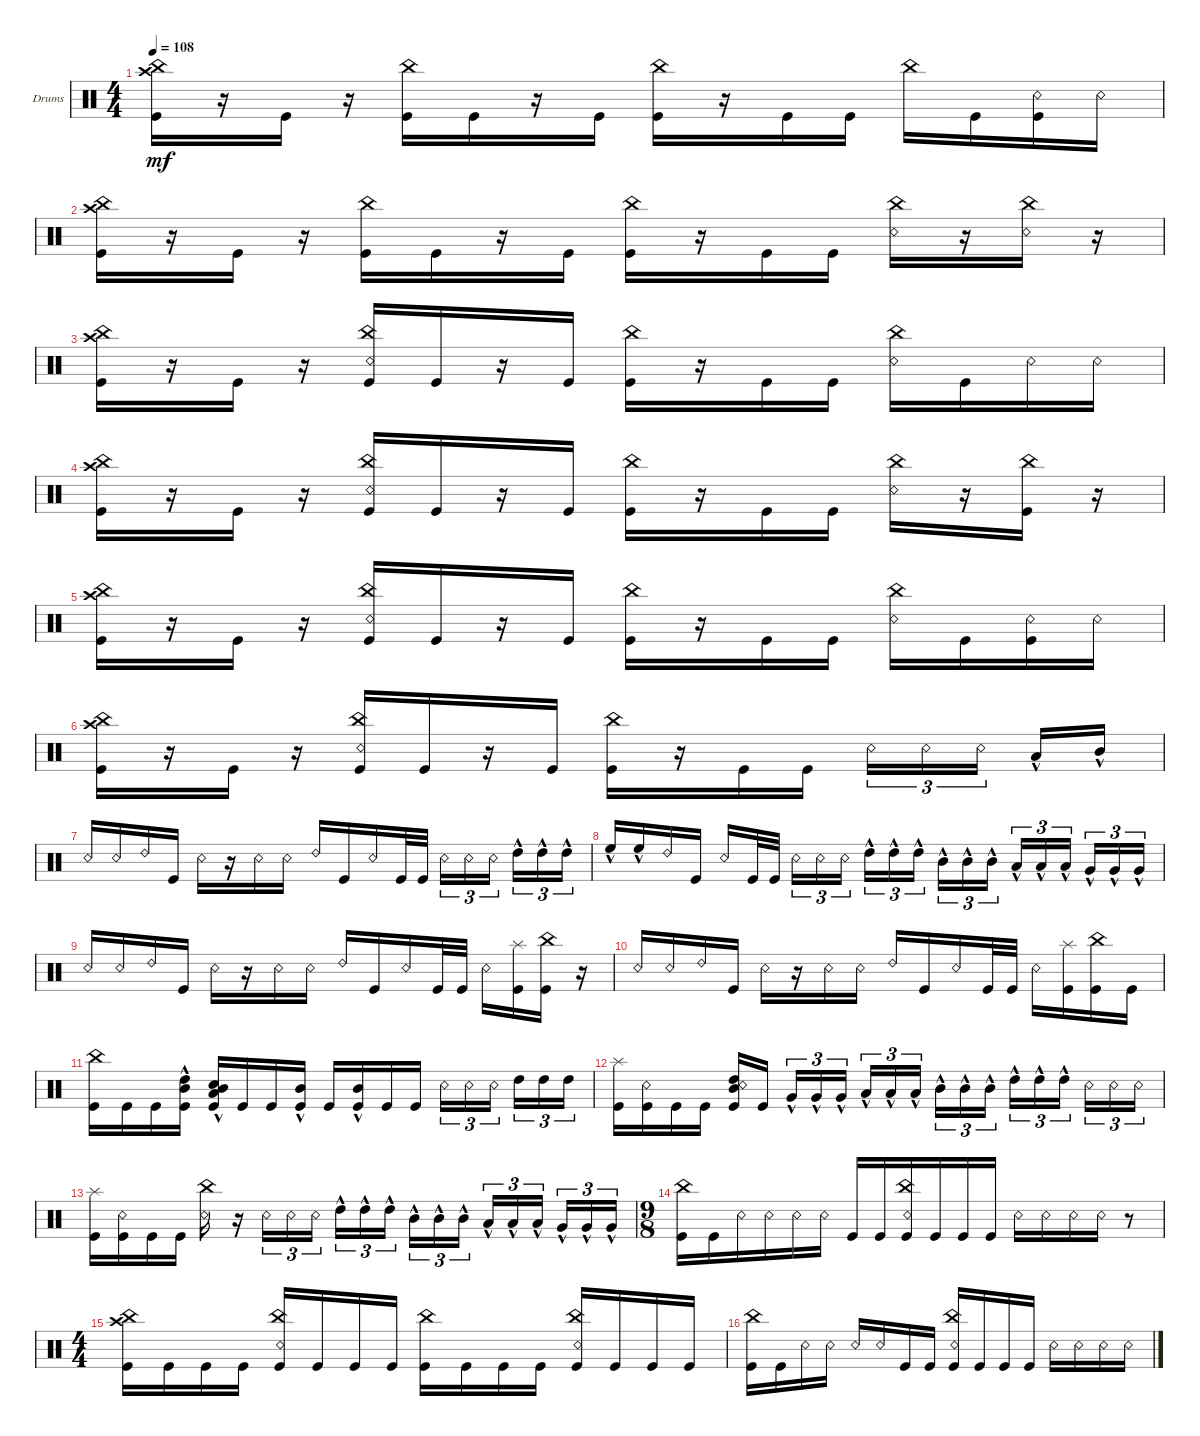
\defaultSystemsLayout 4
\bracketExtendMode groupsimilarinstruments
\firstSystemTrackNameOrientation horizontal
\otherSystemsTrackNameOrientation horizontal
\track ("Drumkit" "Drums") {instrument percussion}
\staff {score}
\articulation defaults
\ts (4 4)
\tempo 108
\clef neutral
\ks c
("Kick (hit)" "China (hit)" "Crash high (hit)").16{dy mf} r.16 "Kick (hit)".16 r.16 ("Kick (hit)" "China (hit)").16 "Kick (hit)".16 r.16 "Kick (hit)".16 ("Kick (hit)" "China (hit)").16 r.16 "Kick (hit)".16 "Kick (hit)".16 "China (hit)".16 "Kick (hit)".16 ("Snare (rim shot)" "Kick (hit)").16 "Snare (rim shot)".16 |
("Kick (hit)" "China (hit)" "Crash high (hit)").16 r.16 "Kick (hit)".16 r.16 ("Kick (hit)" "China (hit)").16 "Kick (hit)".16 r.16 "Kick (hit)".16 ("Kick (hit)" "China (hit)").16 r.16 "Kick (hit)".16 "Kick (hit)".16 ("China (hit)" "Snare (rim shot)").16 r.16 ("Snare (rim shot)" "China (hit)").16 r.16 |
("Kick (hit)" "China (hit)" "Crash high (hit)").16 r.16 "Kick (hit)".16 r.16 ("Kick (hit)" "China (hit)" "Snare (rim shot)").16 "Kick (hit)".16 r.16 "Kick (hit)".16 ("Kick (hit)" "China (hit)").16 r.16 "Kick (hit)".16 "Kick (hit)".16 ("China (hit)" "Snare (rim shot)").16 "Kick (hit)".16 "Snare (rim shot)".16 "Snare (rim shot)".16 |
("Kick (hit)" "China (hit)" "Crash high (hit)").16 r.16 "Kick (hit)".16 r.16 ("Kick (hit)" "China (hit)" "Snare (rim shot)").16 "Kick (hit)".16 r.16 "Kick (hit)".16 ("Kick (hit)" "China (hit)").16 r.16 "Kick (hit)".16 "Kick (hit)".16 ("China (hit)" "Snare (rim shot)").16 r.16 ("China (hit)" "Kick (hit)").16 r.16 |
("Kick (hit)" "China (hit)" "Crash high (hit)").16 r.16 "Kick (hit)".16 r.16 ("Kick (hit)" "China (hit)" "Snare (rim shot)").16 "Kick (hit)".16 r.16 "Kick (hit)".16 ("Kick (hit)" "China (hit)").16 r.16 "Kick (hit)".16 "Kick (hit)".16 ("China (hit)" "Snare (rim shot)").16 "Kick (hit)".16 ("Snare (rim shot)" "Kick (hit)").16 "Snare (rim shot)".16 |
("Kick (hit)" "China (hit)" "Crash high (hit)").16 r.16 "Kick (hit)".16 r.16 ("Kick (hit)" "China (hit)" "Snare (rim shot)").16 "Kick (hit)".16 r.16 "Kick (hit)".16 ("Kick (hit)" "China (hit)").16 r.16 "Kick (hit)".16 "Kick (hit)".16 "Snare (rim shot)".16{tu (3 2)} "Snare (rim shot)".16{tu (3 2)} "Snare (rim shot)".16{tu (3 2)} "Low Tom (hit)"{hac}.16 "Mid Tom (hit)"{hac}.16 |
"Snare (rim shot)".16 "Snare (rim shot)".16 "Ride (bell) 2".16 "Kick (hit)".16 "Snare (rim shot)".16 r.16 "Snare (rim shot)".16 "Snare (rim shot)".16 "Ride (bell) 2".16 "Kick (hit)".16 "Snare (rim shot)".16 "Kick (hit)".32 "Kick (hit)".32 "Snare (rim shot)".16{tu (3 2)} "Snare (rim shot)".16{tu (3 2)} "Snare (rim shot)".16{tu (3 2)} "High Tom (hit)"{hac}.16{tu (3 2)} "High Tom (hit)"{hac}.16{tu (3 2)} "High Tom (hit)"{hac}.16{tu (3 2)} |
"High Floor Tom (hit)"{hac}.16 "High Floor Tom (hit)"{hac}.16 "Ride (bell) 2".16 "Kick (hit)".16 "Snare (rim shot)".16 "Kick (hit)".32 "Kick (hit)".32 "Snare (rim shot)".16{tu (3 2)} "Snare (rim shot)".16{tu (3 2)} "Snare (rim shot)".16{tu (3 2)} "High Tom (hit)"{hac}.16{tu (3 2)} "High Tom (hit)"{hac}.16{tu (3 2)} "High Tom (hit)"{hac}.16{tu (3 2)} "Mid Tom (hit)"{hac}.16{tu (3 2)} "Mid Tom (hit)"{hac}.16{tu (3 2)} "Mid Tom (hit)"{hac}.16{tu (3 2)} "Low Tom (hit)"{hac}.16{tu (3 2)} "Low Tom (hit)"{hac}.16{tu (3 2)} "Low Tom (hit)"{hac}.16{tu (3 2)} "Very Low Tom (hit)"{hac}.16{tu (3 2)} "Very Low Tom (hit)"{hac}.16{tu (3 2)} "Very Low Tom (hit)"{hac}.16{tu (3 2)} |
"Snare (rim shot)".16 "Snare (rim shot)".16 "Ride (bell) 2".16 "Kick (hit)".16 "Snare (rim shot)".16 r.16 "Snare (rim shot)".16 "Snare (rim shot)".16 "Ride (bell) 2".16 "Kick (hit)".16 "Snare (rim shot)".16 "Kick (hit)".32 "Kick (hit)".32 "Snare (rim shot)".16 ("Splash (hit)" "Kick (hit)").16 ("China (hit)" "Kick (hit)").16 r.16 |
"Snare (rim shot)".16 "Snare (rim shot)".16 "Ride (bell) 2".16 "Kick (hit)".16 "Snare (rim shot)".16 r.16 "Snare (rim shot)".16 "Snare (rim shot)".16 "Ride (bell) 2".16 "Kick (hit)".16 "Snare (rim shot)".16 "Kick (hit)".32 "Kick (hit)".32 "Snare (rim shot)".16 ("Splash (hit)" "Kick (hit)").16 ("China (hit)" "Kick (hit)").16 "Kick (hit)".16 |
("Kick (hit)" "China (hit)").16 "Kick (hit)".16 "Kick (hit)".16 ("Kick (hit)" "High Tom (hit)"{hac} "Mid Tom (hit)"{hac}).16 ("Kick (hit)" "Mid Tom (hit)"{hac} "Snare (hit) 2"{hac} "Low Tom (hit)"{hac}).16 "Kick (hit)".16 "Kick (hit)".16 ("Kick (hit)" "Mid Tom (hit)"{hac}).16 "Kick (hit)".16 ("Kick (hit)" "Mid Tom (hit)"{hac}).16 "Kick (hit)".16 "Kick (hit)".16 "Snare (rim shot)".16{tu (3 2)} "Snare (rim shot)".16{tu (3 2)} "Snare (rim shot)".16{tu (3 2)} "High Tom (hit)".16{tu (3 2)} "High Tom (hit)".16{tu (3 2)} "High Tom (hit)".16{tu (3 2)} |
("Kick (hit)" "Splash (hit)").16 ("Kick (hit)" "Snare (rim shot)").16 "Kick (hit)".16 "Kick (hit)".16 ("Kick (hit)" "High Tom (hit)" "Mid Tom (hit)" "Snare (rim shot)").16 "Kick (hit)".16 "Very Low Tom (hit)"{hac}.16{tu (3 2)} "Very Low Tom (hit)"{hac}.16{tu (3 2)} "Very Low Tom (hit)"{hac}.16{tu (3 2)} "Low Tom (hit)"{hac}.16{tu (3 2)} "Low Tom (hit)"{hac}.16{tu (3 2)} "Low Tom (hit)"{hac}.16{tu (3 2)} "Mid Tom (hit)"{hac}.16{tu (3 2)} "Mid Tom (hit)"{hac}.16{tu (3 2)} "Mid Tom (hit)"{hac}.16{tu (3 2)} "High Tom (hit)"{hac}.16{tu (3 2)} "High Tom (hit)"{hac}.16{tu (3 2)} "High Tom (hit)"{hac}.16{tu (3 2)} "Snare (rim shot)".16{tu (3 2)} "Snare (rim shot)".16{tu (3 2)} "Snare (rim shot)".16{tu (3 2)} |
("Splash (hit)" "Kick (hit)").16 ("Kick (hit)" "Snare (rim shot)").16 "Kick (hit)".16 "Kick (hit)".16 ("Snare (rim shot)" "China (hit)").16 r.16 "Snare (rim shot)".16{tu (3 2)} "Snare (rim shot)".16{tu (3 2)} "Snare (rim shot)".16{tu (3 2)} "High Tom (hit)"{hac}.16{tu (3 2)} "High Tom (hit)"{hac}.16{tu (3 2)} "High Tom (hit)"{hac}.16{tu (3 2)} "Mid Tom (hit)"{hac}.16{tu (3 2)} "Mid Tom (hit)"{hac}.16{tu (3 2)} "Mid Tom (hit)"{hac}.16{tu (3 2)} "Low Tom (hit)"{hac}.16{tu (3 2)} "Low Tom (hit)"{hac}.16{tu (3 2)} "Low Tom (hit)"{hac}.16{tu (3 2)} "Very Low Tom (hit)"{hac}.16{tu (3 2)} "Very Low Tom (hit)"{hac}.16{tu (3 2)} "Very Low Tom (hit)"{hac}.16{tu (3 2)} |
\ts (9 8)
("Kick (hit)" "China (hit)").16 "Kick (hit)".16 "Snare (rim shot)".16 "Snare (rim shot)".16 "Snare (rim shot)".16 "Snare (rim shot)".16 "Kick (hit)".16 "Kick (hit)".16 ("Kick (hit)" "Snare (rim shot)" "China (hit)").16 "Kick (hit)".16 "Kick (hit)".16 "Kick (hit)".16 "Snare (rim shot)".16 "Snare (rim shot)".16 "Snare (rim shot)".16 "Snare (rim shot)".16 r.8 |
\ts (4 4)
("Kick (hit)" "China (hit)" "Crash high (hit)").16 "Kick (hit)".16 "Kick (hit)".16 "Kick (hit)".16 ("Kick (hit)" "China (hit)" "Snare (rim shot)").16 "Kick (hit)".16 "Kick (hit)".16 "Kick (hit)".16 ("Kick (hit)" "China (hit)").16 "Kick (hit)".16 "Kick (hit)".16 "Kick (hit)".16 ("Kick (hit)" "China (hit)" "Snare (rim shot)").16 "Kick (hit)".16 "Kick (hit)".16 "Kick (hit)".16 |
("Kick (hit)" "China (hit)").16 "Kick (hit)".16 "Snare (rim shot)".16 "Snare (rim shot)".16 "Snare (rim shot)".16 "Snare (rim shot)".16 "Kick (hit)".16 "Kick (hit)".16 ("Kick (hit)" "Snare (rim shot)" "China (hit)").16 "Kick (hit)".16 "Kick (hit)".16 "Kick (hit)".16 "Snare (rim shot)".16 "Snare (rim shot)".16 "Snare (rim shot)".16 "Snare (rim shot)".16
